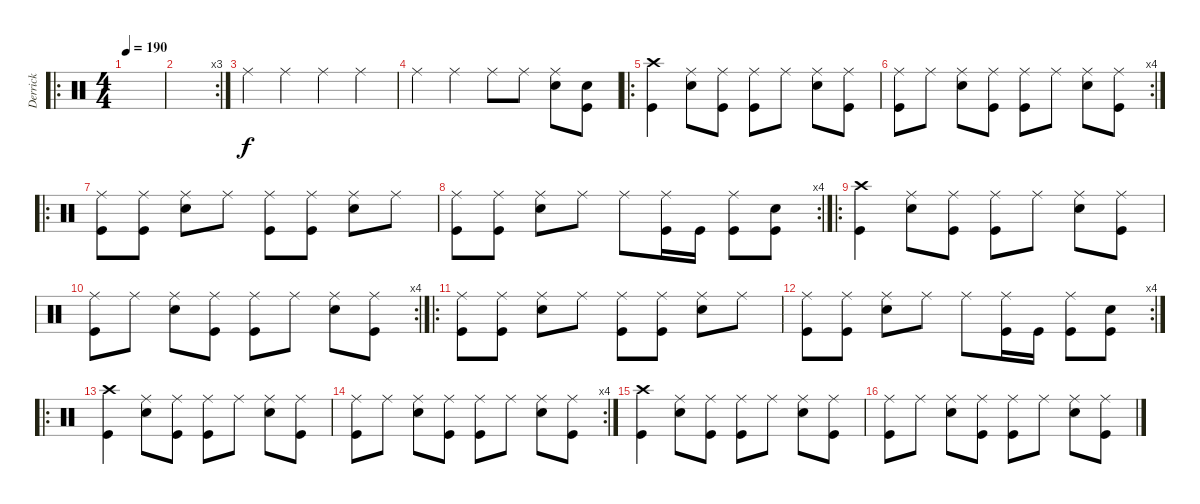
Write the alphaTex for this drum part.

\track ("Derrick" "Derrick") {instrument percussion}
\staff {score}
\articulation defaults
\ro
\ts (4 4)
\tempo 190
\clef neutral
\ks c
|
\rc 3
|
"Ride (middle)".4 "Ride (middle)".4 "Ride (middle)".4 "Ride (middle)".4 |
"Ride (middle)".4 "Ride (middle)".4 "Ride (middle)".8 "Ride (middle)".8 ("Ride (middle)" "Snare (hit) 2").8 ("Snare (hit) 2" "Kick (hit)").8 |
\ro
("Crash high (hit)" "Kick (hit)").4 ("Ride (middle)" "Snare (hit) 2").8 ("Ride (middle)" "Kick (hit)").8 ("Ride (middle)" "Kick (hit)").8 "Ride (middle)".8 ("Ride (middle)" "Snare (hit) 2").8 ("Ride (middle)" "Kick (hit)").8 |
\rc 4
("Ride (middle)" "Kick (hit)").8 "Ride (middle)".8 ("Ride (middle)" "Snare (hit) 2").8 ("Ride (middle)" "Kick (hit)").8 ("Ride (middle)" "Kick (hit)").8 "Ride (middle)".8 ("Ride (middle)" "Snare (hit) 2").8 ("Ride (middle)" "Kick (hit)").8 |
\ro
("Ride (middle)" "Kick (hit)").8 ("Ride (middle)" "Kick (hit)").8 ("Ride (middle)" "Snare (hit) 2").8 "Ride (middle)".8 ("Ride (middle)" "Kick (hit)").8 ("Ride (middle)" "Kick (hit)").8 ("Ride (middle)" "Snare (hit) 2").8 "Ride (middle)".8 |
\rc 4
("Ride (middle)" "Kick (hit)").8 ("Ride (middle)" "Kick (hit)").8 ("Ride (middle)" "Snare (hit) 2").8 "Ride (middle)".8 "Ride (middle)".8 ("Ride (middle)" "Kick (hit)").16 "Kick (hit)".16 ("Ride (middle)" "Kick (hit)").8 ("Snare (hit) 2" "Kick (hit)").8 |
\ro
("Crash high (hit)" "Kick (hit)").4 ("Ride (middle)" "Snare (hit) 2").8 ("Ride (middle)" "Kick (hit)").8 ("Ride (middle)" "Kick (hit)").8 "Ride (middle)".8 ("Ride (middle)" "Snare (hit) 2").8 ("Ride (middle)" "Kick (hit)").8 |
\rc 4
("Ride (middle)" "Kick (hit)").8 "Ride (middle)".8 ("Ride (middle)" "Snare (hit) 2").8 ("Ride (middle)" "Kick (hit)").8 ("Ride (middle)" "Kick (hit)").8 "Ride (middle)".8 ("Ride (middle)" "Snare (hit) 2").8 ("Ride (middle)" "Kick (hit)").8 |
\ro
("Ride (middle)" "Kick (hit)").8 ("Ride (middle)" "Kick (hit)").8 ("Ride (middle)" "Snare (hit) 2").8 "Ride (middle)".8 ("Ride (middle)" "Kick (hit)").8 ("Ride (middle)" "Kick (hit)").8 ("Ride (middle)" "Snare (hit) 2").8 "Ride (middle)".8 |
\rc 4
("Ride (middle)" "Kick (hit)").8 ("Ride (middle)" "Kick (hit)").8 ("Ride (middle)" "Snare (hit) 2").8 "Ride (middle)".8 "Ride (middle)".8 ("Ride (middle)" "Kick (hit)").16 "Kick (hit)".16 ("Ride (middle)" "Kick (hit)").8 ("Snare (hit) 2" "Kick (hit)").8 |
\ro
("Crash high (hit)" "Kick (hit)").4 ("Ride (middle)" "Snare (hit) 2").8 ("Ride (middle)" "Kick (hit)").8 ("Ride (middle)" "Kick (hit)").8 "Ride (middle)".8 ("Ride (middle)" "Snare (hit) 2").8 ("Ride (middle)" "Kick (hit)").8 |
\rc 4
("Ride (middle)" "Kick (hit)").8 "Ride (middle)".8 ("Ride (middle)" "Snare (hit) 2").8 ("Ride (middle)" "Kick (hit)").8 ("Ride (middle)" "Kick (hit)").8 "Ride (middle)".8 ("Ride (middle)" "Snare (hit) 2").8 ("Ride (middle)" "Kick (hit)").8 |
("Crash high (hit)" "Kick (hit)").4 ("Ride (middle)" "Snare (hit) 2").8 ("Ride (middle)" "Kick (hit)").8 ("Ride (middle)" "Kick (hit)").8 "Ride (middle)".8 ("Ride (middle)" "Snare (hit) 2").8 ("Ride (middle)" "Kick (hit)").8 |
("Ride (middle)" "Kick (hit)").8 "Ride (middle)".8 ("Ride (middle)" "Snare (hit) 2").8 ("Ride (middle)" "Kick (hit)").8 ("Ride (middle)" "Kick (hit)").8 "Ride (middle)".8 ("Ride (middle)" "Snare (hit) 2").8 ("Ride (middle)" "Kick (hit)").8
